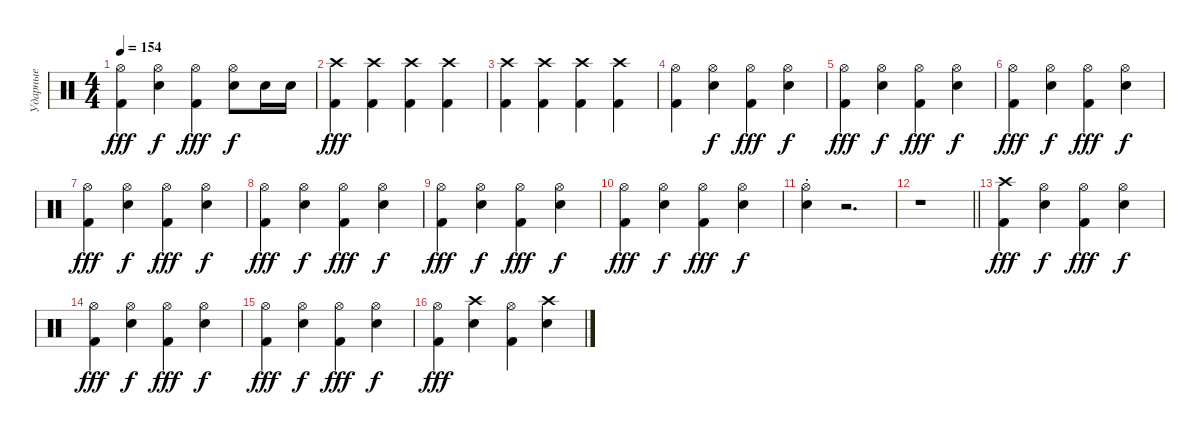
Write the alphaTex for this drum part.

\track ("Ударные" "Ударные") {instrument percussion}
\staff
\articulation defaults
\ts (4 4)
\tempo 154
\clef neutral
\ks c
("Kick (hit) 2" "Hi-Hat (open)").4{dy fff} ("Snare (hit) 2" "Hi-Hat (open)").4{dy f} ("Kick (hit) 2" "Hi-Hat (open)").4{dy fff} ("Snare (hit) 2" "Hi-Hat (open)").8{dy f} "Snare (hit) 2".16 "Snare (hit) 2".16 |
("Kick (hit) 2" "Crash high (hit)").4{dy fff} ("Kick (hit) 2" "Crash high (hit)").4 ("Kick (hit) 2" "Crash high (hit)").4 ("Kick (hit) 2" "Crash high (hit)").4 |
("Kick (hit) 2" "Crash high (hit)").4 ("Kick (hit) 2" "Crash high (hit)").4 ("Kick (hit) 2" "Crash high (hit)").4 ("Kick (hit) 2" "Crash high (hit)").4 |
("Kick (hit) 2" "Hi-Hat (open)").4 ("Snare (hit) 2" "Hi-Hat (open)").4{dy f} ("Kick (hit) 2" "Hi-Hat (open)").4{dy fff} ("Snare (hit) 2" "Hi-Hat (open)").4{dy f} |
("Kick (hit) 2" "Hi-Hat (open)").4{dy fff} ("Snare (hit) 2" "Hi-Hat (open)").4{dy f} ("Kick (hit) 2" "Hi-Hat (open)").4{dy fff} ("Snare (hit) 2" "Hi-Hat (open)").4{dy f} |
("Kick (hit) 2" "Hi-Hat (open)").4{dy fff} ("Snare (hit) 2" "Hi-Hat (open)").4{dy f} ("Kick (hit) 2" "Hi-Hat (open)").4{dy fff} ("Snare (hit) 2" "Hi-Hat (open)").4{dy f} |
("Kick (hit) 2" "Hi-Hat (open)").4{dy fff} ("Snare (hit) 2" "Hi-Hat (open)").4{dy f} ("Kick (hit) 2" "Hi-Hat (open)").4{dy fff} ("Snare (hit) 2" "Hi-Hat (open)").4{dy f} |
("Kick (hit) 2" "Hi-Hat (open)").4{dy fff} ("Snare (hit) 2" "Hi-Hat (open)").4{dy f} ("Kick (hit) 2" "Hi-Hat (open)").4{dy fff} ("Snare (hit) 2" "Hi-Hat (open)").4{dy f} |
("Kick (hit) 2" "Hi-Hat (open)").4{dy fff} ("Snare (hit) 2" "Hi-Hat (open)").4{dy f} ("Kick (hit) 2" "Hi-Hat (open)").4{dy fff} ("Snare (hit) 2" "Hi-Hat (open)").4{dy f} |
("Kick (hit) 2" "Hi-Hat (open)").4{dy fff} ("Snare (hit) 2" "Hi-Hat (open)").4{dy f} ("Kick (hit) 2" "Hi-Hat (open)").4{dy fff} ("Snare (hit) 2" "Hi-Hat (open)").4{dy f} |
("Snare (hit) 2"{st} "Hi-Hat (open)"{st}).4 r.2{d} |
\barLineRight lightlight
r.1 |
("Kick (hit) 2" "Crash high (hit)").4{dy fff} ("Snare (hit) 2" "Hi-Hat (open)").4{dy f} ("Kick (hit) 2" "Hi-Hat (open)").4{dy fff} ("Snare (hit) 2" "Hi-Hat (open)").4{dy f} |
("Kick (hit) 2" "Hi-Hat (open)").4{dy fff} ("Snare (hit) 2" "Hi-Hat (open)").4{dy f} ("Kick (hit) 2" "Hi-Hat (open)").4{dy fff} ("Snare (hit) 2" "Hi-Hat (open)").4{dy f} |
("Kick (hit) 2" "Hi-Hat (open)").4{dy fff} ("Snare (hit) 2" "Hi-Hat (open)").4{dy f} ("Kick (hit) 2" "Hi-Hat (open)").4{dy fff} ("Snare (hit) 2" "Hi-Hat (open)").4{dy f} |
("Kick (hit) 2" "Hi-Hat (open)").4{dy fff} ("Snare (hit) 2" "Crash high (hit)").4 ("Kick (hit) 2" "Hi-Hat (open)").4 ("Snare (hit) 2" "Crash high (hit)").4
